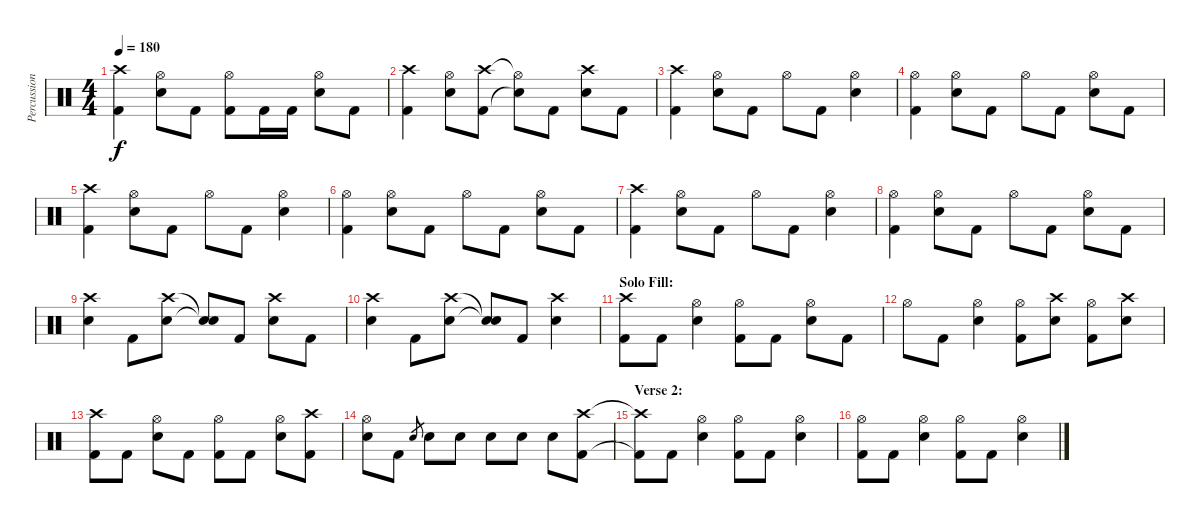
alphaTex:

\track ("Percussion" "Percussion") {instrument percussion}
\staff {score}
\articulation defaults
\ts (4 4)
\tempo 180
\clef neutral
\ks c
("Crash high (hit)" "Kick (hit) 2").4{dy f} ("Hi-Hat (open)" "Snare (hit) 2").8 "Kick (hit) 2".8 ("Hi-Hat (open)" "Kick (hit) 2").8 "Kick (hit) 2".16 "Kick (hit) 2".16 ("Hi-Hat (open)" "Snare (hit) 2").8 "Kick (hit) 2".8 |
("Crash high (hit)" "Kick (hit) 2").4 ("Hi-Hat (open)" "Snare (hit) 2").8 ("Crash high (hit)" "Kick (hit) 2").8 ("Hi-Hat (open)"{t} "Snare (hit)"{t}).8 "Kick (hit) 2".8 ("Crash high (hit)" "Snare (hit) 2").8 "Kick (hit) 2".8 |
("Crash high (hit)" "Kick (hit) 2").4 ("Hi-Hat (open)" "Snare (hit) 2").8 "Kick (hit) 2".8 "Hi-Hat (open)".8 "Kick (hit) 2".8 ("Hi-Hat (open)" "Snare (hit) 2").4 |
("Hi-Hat (open)" "Kick (hit) 2").4 ("Hi-Hat (open)" "Snare (hit) 2").8 "Kick (hit) 2".8 "Hi-Hat (open)".8 "Kick (hit) 2".8 ("Hi-Hat (open)" "Snare (hit) 2").8 "Kick (hit) 2".8 |
("Crash high (hit)" "Kick (hit) 2").4 ("Hi-Hat (open)" "Snare (hit) 2").8 "Kick (hit) 2".8 "Hi-Hat (open)".8 "Kick (hit) 2".8 ("Hi-Hat (open)" "Snare (hit) 2").4 |
("Hi-Hat (open)" "Kick (hit) 2").4 ("Hi-Hat (open)" "Snare (hit) 2").8 "Kick (hit) 2".8 "Hi-Hat (open)".8 "Kick (hit) 2".8 ("Hi-Hat (open)" "Snare (hit) 2").8 "Kick (hit) 2".8 |
("Crash high (hit)" "Kick (hit) 2").4 ("Hi-Hat (open)" "Snare (hit) 2").8 "Kick (hit) 2".8 "Hi-Hat (open)".8 "Kick (hit) 2".8 ("Hi-Hat (open)" "Snare (hit) 2").4 |
("Hi-Hat (open)" "Kick (hit) 2").4 ("Hi-Hat (open)" "Snare (hit) 2").8 "Kick (hit) 2".8 "Hi-Hat (open)".8 "Kick (hit) 2".8 ("Hi-Hat (open)" "Snare (hit) 2").8 "Kick (hit) 2".8 |
("Crash high (hit)" "Snare (hit) 2").4 "Kick (hit) 2".8 ("Crash high (hit)" "Snare (hit) 2").8 ("Snare (hit)"{t} "Snare (hit)"{t}).8 "Kick (hit) 2".8 ("Crash high (hit)" "Snare (hit) 2").8 "Kick (hit) 2".8 |
("Crash high (hit)" "Snare (hit) 2").4 "Kick (hit) 2".8 ("Crash high (hit)" "Snare (hit) 2").8 ("Snare (hit)"{t} "Snare (hit)"{t}).8 "Kick (hit) 2".8 ("Crash high (hit)" "Snare (hit) 2").4 |
\section ("" "Solo Fill:")
("Crash high (hit)" "Kick (hit) 2").8 "Kick (hit) 2".8 ("Hi-Hat (open)" "Snare (hit) 2").4 ("Hi-Hat (open)" "Kick (hit) 2").8 "Kick (hit) 2".8 ("Hi-Hat (open)" "Snare (hit) 2").8 "Kick (hit) 2".8 |
"Hi-Hat (open)".8 "Kick (hit) 2".8 ("Hi-Hat (open)" "Snare (hit) 2").4 ("Hi-Hat (open)" "Kick (hit) 2").8 ("Crash high (hit)" "Snare (hit) 2").8 ("Hi-Hat (open)" "Kick (hit) 2").8 ("Crash high (hit)" "Snare (hit) 2").8 |
("Crash high (hit)" "Kick (hit) 2").8 "Kick (hit) 2".8 ("Hi-Hat (open)" "Snare (hit) 2").8 "Kick (hit) 2".8 ("Hi-Hat (open)" "Kick (hit) 2").8 "Kick (hit) 2".8 ("Hi-Hat (open)" "Snare (hit) 2").8 ("Crash high (hit)" "Kick (hit) 2").8 |
("Hi-Hat (open)" "Snare (hit) 2").8 "Kick (hit) 2".8 "Snare (hit) 2".8{gr} "Snare (hit) 2".8 "Snare (hit) 2".8 "Snare (hit) 2".8 "Snare (hit) 2".8 "Snare (hit) 2".8 ("Crash high (hit)" "Kick (hit) 2").8 |
\section ("" "Verse 2:")
("Crash high (hit)"{t} "Kick (hit) 2"{t}).8 "Kick (hit) 2".8 ("Hi-Hat (open)" "Snare (hit) 2").4 ("Hi-Hat (open)" "Kick (hit) 2").8 "Kick (hit) 2".8 ("Hi-Hat (open)" "Snare (hit) 2").4 |
("Hi-Hat (open)" "Kick (hit) 2").8 "Kick (hit) 2".8 ("Hi-Hat (open)" "Snare (hit) 2").4 ("Hi-Hat (open)" "Kick (hit) 2").8 "Kick (hit) 2".8 ("Hi-Hat (open)" "Snare (hit) 2").4
